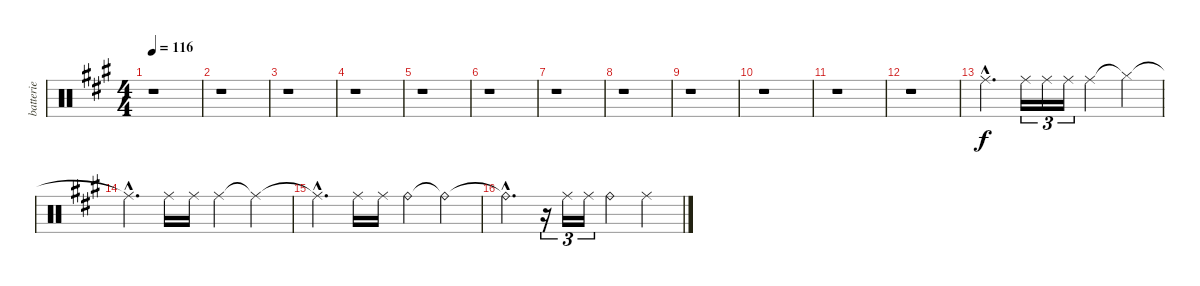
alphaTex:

\track ("batterie" "batterie") {instrument percussion}
\staff {score}
\articulation defaults
\ts (4 4)
\tempo 116
\clef neutral
\ks a
r.1{dy f} |
r.1 |
r.1 |
r.1 |
r.1 |
r.1 |
r.1 |
r.1 |
r.1 |
r.1 |
r.1 |
r.1 |
"Ride (middle)"{hac}.4{d} "Ride (middle)".16{tu (3 2)} "Ride (middle)".16{tu (3 2)} "Ride (middle)".16{tu (3 2)} "Ride (middle)".4 "Hi-Hat (closed)"{t}.4 |
"Ride (middle)"{hac t}.4{d} "Ride (middle)".16 "Ride (middle)".16 "Ride (middle)".4 "Ride (middle)"{t}.4 |
"Ride (middle)"{hac t}.4{d} "Ride (middle)".16 "Ride (middle)".16 "Ride (bell)".4 "Ride (bell)"{t}.4 |
"Ride (bell)"{hac t}.4{d} r.16{tu (3 2)} "Ride (middle)".16{tu (3 2)} "Ride (middle)".16{tu (3 2)} "Ride (bell)".4 "Ride (middle)".4
